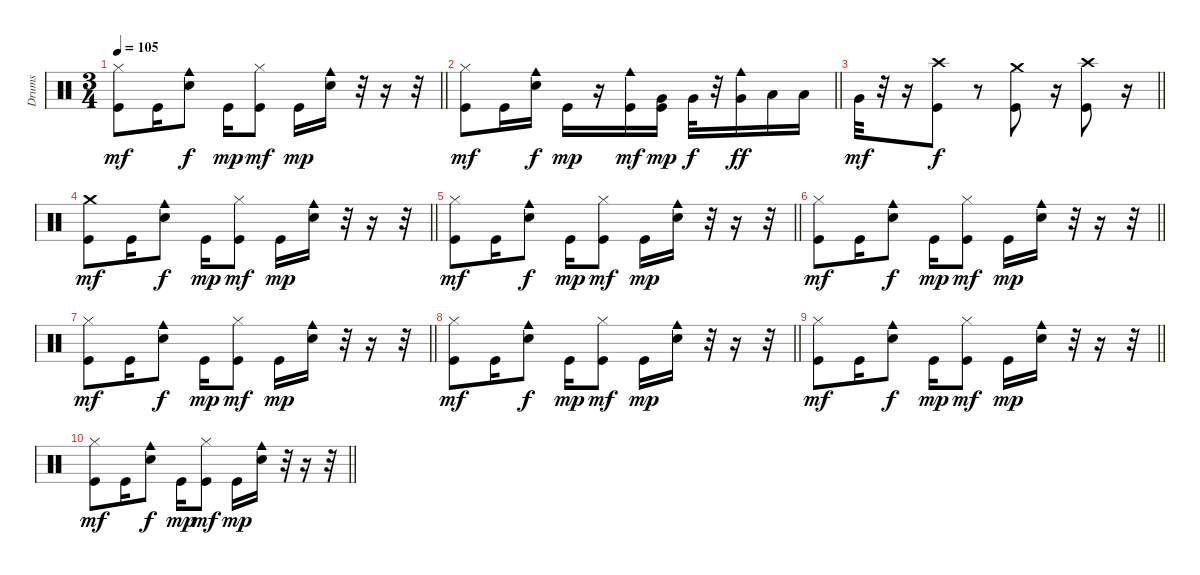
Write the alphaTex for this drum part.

\track ("Drums" "Drums") {instrument percussion}
\staff {score}
\articulation defaults
\ts (3 4)
\tempo 105
\clef neutral
\barLineRight lightlight
\ks c
("Hi-Hat (closed)" "Kick (hit)").8{dy mf} "Kick (hit)".16 ("Cowbell medium (hit)" "Snare (hit) 2").8{dy f} "Kick (hit)".16{dy mp} ("Hi-Hat (closed)" "Kick (hit)").8{dy mf} "Kick (hit)".16{dy mp} ("Cowbell medium (hit)" "Snare (hit) 2").16 r.32 r.16 r.32 |
\barLineRight lightlight
("Hi-Hat (closed)" "Kick (hit)").8{dy mf} "Kick (hit)".16 ("Cowbell medium (hit)" "Snare (hit) 2").16{dy f} "Kick (hit)".16{dy mp} r.16 ("Cowbell medium (hit)" "Kick (hit)").16{dy mf} ("Very Low Tom (hit)" "Kick (hit)").16{dy mp} "Very Low Tom (hit)".32{dy f} r.32 ("Cowbell medium (hit)" "Very Low Tom (hit)").16{dy ff} "Low Tom (hit)".16 "Low Tom (hit)".16 |
\barLineRight lightlight "Very Low Tom (hit)".32{dy mf}
r.32 r.16 ("Crash high (hit)" "Kick (hit)").8{dy f} r.8 ("Crash medium (hit)" "Kick (hit)").8 r.16 ("Crash high (hit)" "Kick (hit)").8 r.16 |
\barLineRight lightlight
("Crash medium (hit)" "Kick (hit)").8{dy mf} "Kick (hit)".16 ("Cowbell medium (hit)" "Snare (hit) 2").8{dy f} "Kick (hit)".16{dy mp} ("Hi-Hat (closed)" "Kick (hit)").8{dy mf} "Kick (hit)".16{dy mp} ("Cowbell medium (hit)" "Snare (hit) 2").16 r.32 r.16 r.32 |
\barLineRight lightlight
("Hi-Hat (closed)" "Kick (hit)").8{dy mf} "Kick (hit)".16 ("Cowbell medium (hit)" "Snare (hit) 2").8{dy f} "Kick (hit)".16{dy mp} ("Hi-Hat (closed)" "Kick (hit)").8{dy mf} "Kick (hit)".16{dy mp} ("Cowbell medium (hit)" "Snare (hit) 2").16 r.32 r.16 r.32 |
\barLineRight lightlight
("Hi-Hat (closed)" "Kick (hit)").8{dy mf} "Kick (hit)".16 ("Cowbell medium (hit)" "Snare (hit) 2").8{dy f} "Kick (hit)".16{dy mp} ("Hi-Hat (closed)" "Kick (hit)").8{dy mf} "Kick (hit)".16{dy mp} ("Cowbell medium (hit)" "Snare (hit) 2").16 r.32 r.16 r.32 |
\barLineRight lightlight
("Hi-Hat (closed)" "Kick (hit)").8{dy mf} "Kick (hit)".16 ("Cowbell medium (hit)" "Snare (hit) 2").8{dy f} "Kick (hit)".16{dy mp} ("Hi-Hat (closed)" "Kick (hit)").8{dy mf} "Kick (hit)".16{dy mp} ("Cowbell medium (hit)" "Snare (hit) 2").16 r.32 r.16 r.32 |
\barLineRight lightlight
("Hi-Hat (closed)" "Kick (hit)").8{dy mf} "Kick (hit)".16 ("Cowbell medium (hit)" "Snare (hit) 2").8{dy f} "Kick (hit)".16{dy mp} ("Hi-Hat (closed)" "Kick (hit)").8{dy mf} "Kick (hit)".16{dy mp} ("Cowbell medium (hit)" "Snare (hit) 2").16 r.32 r.16 r.32 |
\barLineRight lightlight
("Hi-Hat (closed)" "Kick (hit)").8{dy mf} "Kick (hit)".16 ("Cowbell medium (hit)" "Snare (hit) 2").8{dy f} "Kick (hit)".16{dy mp} ("Hi-Hat (closed)" "Kick (hit)").8{dy mf} "Kick (hit)".16{dy mp} ("Cowbell medium (hit)" "Snare (hit) 2").16 r.32 r.16 r.32 |
\barLineRight lightlight
("Hi-Hat (closed)" "Kick (hit)").8{dy mf} "Kick (hit)".16 ("Cowbell medium (hit)" "Snare (hit) 2").8{dy f} "Kick (hit)".16{dy mp} ("Hi-Hat (closed)" "Kick (hit)").8{dy mf} "Kick (hit)".16{dy mp} ("Cowbell medium (hit)" "Snare (hit) 2").16 r.32 r.16 r.32
